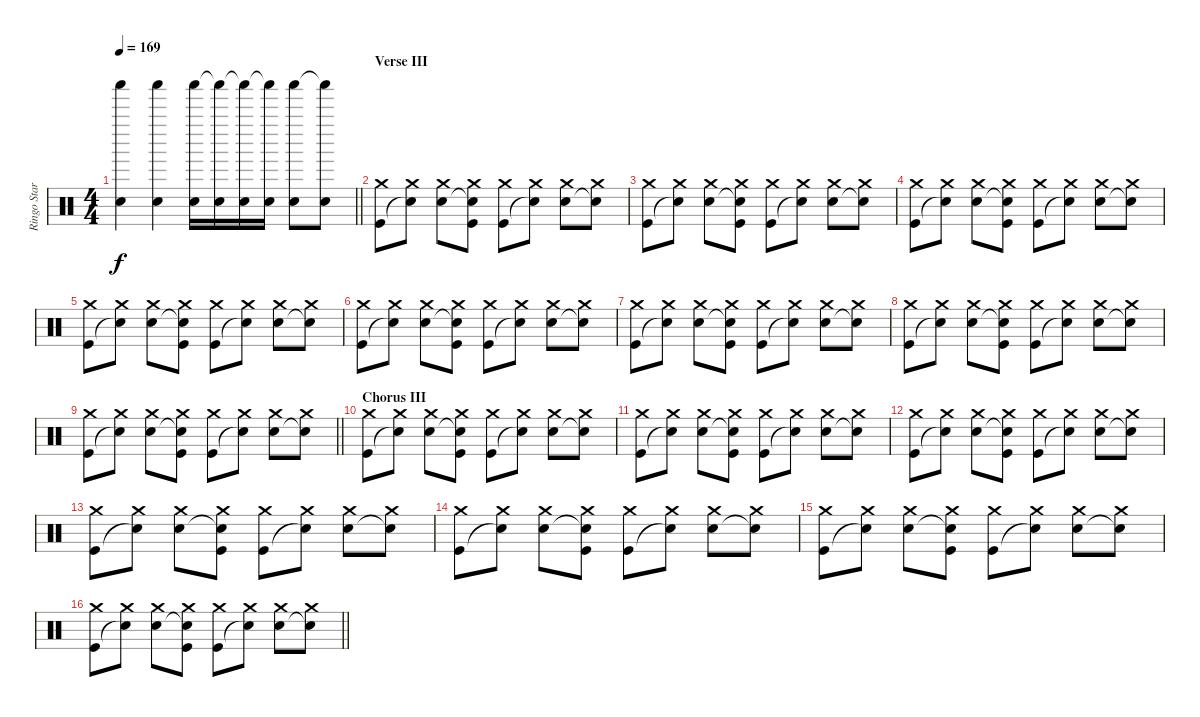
\track ("Ringo Starr" "Ringo Star") {instrument percussion}
\staff {score}
\articulation defaults
\ts (4 4)
\tempo 169
\clef neutral
\barLineRight lightlight
\ks c
("Shaker (hit)" "Snare (hit) 2").4{dy f} ("Shaker (hit)" "Snare (hit) 2").4 ("Shaker (hit)" "Snare (hit) 2").16 ("Shaker (hit)"{t} "Snare (hit) 2").16 ("Shaker (hit)"{t} "Snare (hit) 2").16 ("Shaker (hit)"{t} "Snare (hit) 2").16 ("Shaker (hit)" "Snare (hit) 2").8 ("Shaker (hit)"{t} "Snare (hit) 2").8 |
\section ("" "Verse III")
("Crash medium (hit)" "Kick (hit)").8 ("Crash medium (hit)" "Snare (hit)"{t}).8 ("Crash medium (hit)" "Snare (hit) 2").8 ("Crash medium (hit)" "Snare (hit)"{t} "Kick (hit)").8 ("Crash medium (hit)" "Kick (hit)").8 ("Crash medium (hit)" "Snare (hit)"{t}).8 ("Crash medium (hit)" "Snare (hit) 2").8 ("Crash medium (hit)" "Snare (hit)"{t}).8 |
("Crash medium (hit)" "Kick (hit)").8 ("Crash medium (hit)" "Snare (hit)"{t}).8 ("Crash medium (hit)" "Snare (hit) 2").8 ("Crash medium (hit)" "Snare (hit)"{t} "Kick (hit)").8 ("Crash medium (hit)" "Kick (hit)").8 ("Crash medium (hit)" "Snare (hit)"{t}).8 ("Crash medium (hit)" "Snare (hit) 2").8 ("Crash medium (hit)" "Snare (hit)"{t}).8 |
("Crash medium (hit)" "Kick (hit)").8 ("Crash medium (hit)" "Snare (hit)"{t}).8 ("Crash medium (hit)" "Snare (hit) 2").8 ("Crash medium (hit)" "Snare (hit)"{t} "Kick (hit)").8 ("Crash medium (hit)" "Kick (hit)").8 ("Crash medium (hit)" "Snare (hit)"{t}).8 ("Crash medium (hit)" "Snare (hit) 2").8 ("Crash medium (hit)" "Snare (hit)"{t}).8 |
("Crash medium (hit)" "Kick (hit)").8 ("Crash medium (hit)" "Snare (hit)"{t}).8 ("Crash medium (hit)" "Snare (hit) 2").8 ("Crash medium (hit)" "Snare (hit)"{t} "Kick (hit)").8 ("Crash medium (hit)" "Kick (hit)").8 ("Crash medium (hit)" "Snare (hit)"{t}).8 ("Crash medium (hit)" "Snare (hit) 2").8 ("Crash medium (hit)" "Snare (hit)"{t}).8 |
("Crash medium (hit)" "Kick (hit)").8 ("Crash medium (hit)" "Snare (hit)"{t}).8 ("Crash medium (hit)" "Snare (hit) 2").8 ("Crash medium (hit)" "Snare (hit)"{t} "Kick (hit)").8 ("Crash medium (hit)" "Kick (hit)").8 ("Crash medium (hit)" "Snare (hit)"{t}).8 ("Crash medium (hit)" "Snare (hit) 2").8 ("Crash medium (hit)" "Snare (hit)"{t}).8 |
("Crash medium (hit)" "Kick (hit)").8 ("Crash medium (hit)" "Snare (hit)"{t}).8 ("Crash medium (hit)" "Snare (hit) 2").8 ("Crash medium (hit)" "Snare (hit)"{t} "Kick (hit)").8 ("Crash medium (hit)" "Kick (hit)").8 ("Crash medium (hit)" "Snare (hit)"{t}).8 ("Crash medium (hit)" "Snare (hit) 2").8 ("Crash medium (hit)" "Snare (hit)"{t}).8 |
("Crash medium (hit)" "Kick (hit)").8 ("Crash medium (hit)" "Snare (hit)"{t}).8 ("Crash medium (hit)" "Snare (hit) 2").8 ("Crash medium (hit)" "Snare (hit)"{t} "Kick (hit)").8 ("Crash medium (hit)" "Kick (hit)").8 ("Crash medium (hit)" "Snare (hit)"{t}).8 ("Crash medium (hit)" "Snare (hit) 2").8 ("Crash medium (hit)" "Snare (hit)"{t}).8 |
\barLineRight lightlight
("Crash medium (hit)" "Kick (hit)").8 ("Crash medium (hit)" "Snare (hit)"{t}).8 ("Crash medium (hit)" "Snare (hit) 2").8 ("Crash medium (hit)" "Snare (hit)"{t} "Kick (hit)").8 ("Crash medium (hit)" "Kick (hit)").8 ("Crash medium (hit)" "Snare (hit)"{t}).8 ("Crash medium (hit)" "Snare (hit) 2").8 ("Crash medium (hit)" "Snare (hit)"{t}).8 |
\section ("" "Chorus III")
("Crash medium (hit)" "Kick (hit)").8 ("Crash medium (hit)" "Snare (hit)"{t}).8 ("Crash medium (hit)" "Snare (hit) 2").8 ("Crash medium (hit)" "Snare (hit)"{t} "Kick (hit)").8 ("Crash medium (hit)" "Kick (hit)").8 ("Crash medium (hit)" "Snare (hit)"{t}).8 ("Crash medium (hit)" "Snare (hit) 2").8 ("Crash medium (hit)" "Snare (hit)"{t}).8 |
("Crash medium (hit)" "Kick (hit)").8 ("Crash medium (hit)" "Snare (hit)"{t}).8 ("Crash medium (hit)" "Snare (hit) 2").8 ("Crash medium (hit)" "Snare (hit)"{t} "Kick (hit)").8 ("Crash medium (hit)" "Kick (hit)").8 ("Crash medium (hit)" "Snare (hit)"{t}).8 ("Crash medium (hit)" "Snare (hit) 2").8 ("Crash medium (hit)" "Snare (hit)"{t}).8 |
("Crash medium (hit)" "Kick (hit)").8 ("Crash medium (hit)" "Snare (hit)"{t}).8 ("Crash medium (hit)" "Snare (hit) 2").8 ("Crash medium (hit)" "Snare (hit)"{t} "Kick (hit)").8 ("Crash medium (hit)" "Kick (hit)").8 ("Crash medium (hit)" "Snare (hit)"{t}).8 ("Crash medium (hit)" "Snare (hit) 2").8 ("Crash medium (hit)" "Snare (hit)"{t}).8 |
("Crash medium (hit)" "Kick (hit)").8 ("Crash medium (hit)" "Snare (hit)"{t}).8 ("Crash medium (hit)" "Snare (hit) 2").8 ("Crash medium (hit)" "Snare (hit)"{t} "Kick (hit)").8 ("Crash medium (hit)" "Kick (hit)").8 ("Crash medium (hit)" "Snare (hit)"{t}).8 ("Crash medium (hit)" "Snare (hit) 2").8 ("Crash medium (hit)" "Snare (hit)"{t}).8 |
("Crash medium (hit)" "Kick (hit)").8 ("Crash medium (hit)" "Snare (hit)"{t}).8 ("Crash medium (hit)" "Snare (hit) 2").8 ("Crash medium (hit)" "Snare (hit)"{t} "Kick (hit)").8 ("Crash medium (hit)" "Kick (hit)").8 ("Crash medium (hit)" "Snare (hit)"{t}).8 ("Crash medium (hit)" "Snare (hit) 2").8 ("Crash medium (hit)" "Snare (hit)"{t}).8 |
("Crash medium (hit)" "Kick (hit)").8 ("Crash medium (hit)" "Snare (hit)"{t}).8 ("Crash medium (hit)" "Snare (hit) 2").8 ("Crash medium (hit)" "Snare (hit)"{t} "Kick (hit)").8 ("Crash medium (hit)" "Kick (hit)").8 ("Crash medium (hit)" "Snare (hit)"{t}).8 ("Crash medium (hit)" "Snare (hit) 2").8 ("Crash medium (hit)" "Snare (hit)"{t}).8 |
\barLineRight lightlight
("Crash medium (hit)" "Kick (hit)").8 ("Crash medium (hit)" "Snare (hit)"{t}).8 ("Crash medium (hit)" "Snare (hit) 2").8 ("Crash medium (hit)" "Snare (hit)"{t} "Kick (hit)").8 ("Crash medium (hit)" "Kick (hit)").8 ("Crash medium (hit)" "Snare (hit)"{t}).8 ("Crash medium (hit)" "Snare (hit) 2").8 ("Crash medium (hit)" "Snare (hit)"{t}).8
